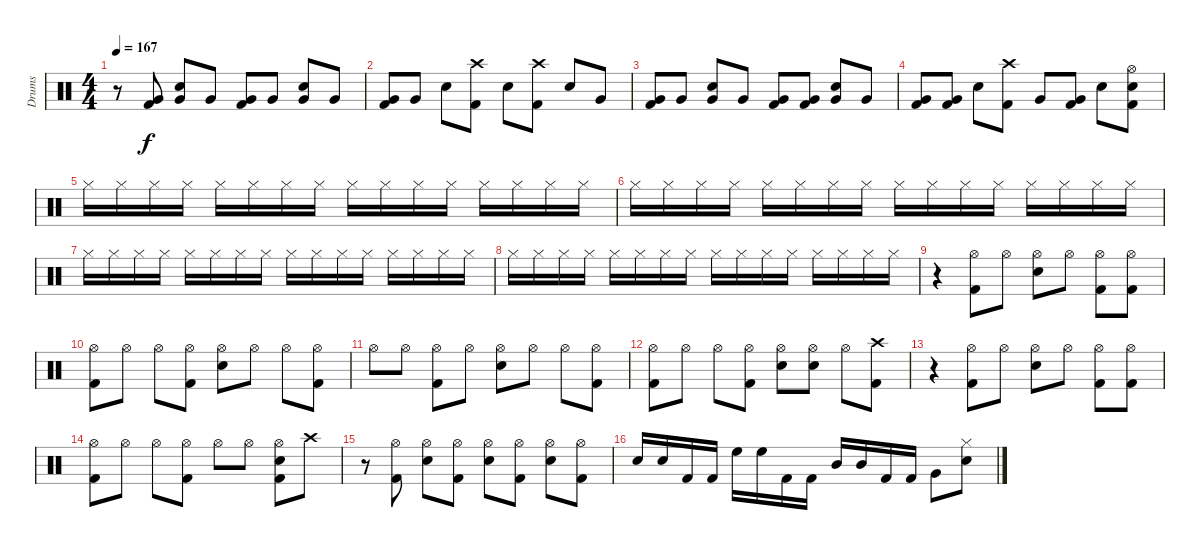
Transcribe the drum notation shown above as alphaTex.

\track ("Drums" "Drums") {instrument percussion}
\staff {score}
\articulation defaults
\ts (4 4)
\tempo 167
\clef neutral
\ks c
r.8{dy f} ("Very Low Tom (hit)" "Kick (hit) 2").8 ("Snare (hit) 2" "Very Low Tom (hit)").8 "Very Low Tom (hit)".8 ("Very Low Tom (hit)" "Kick (hit) 2").8 "Very Low Tom (hit)".8 ("Snare (hit) 2" "Very Low Tom (hit)").8 "Very Low Tom (hit)".8 |
("Very Low Tom (hit)" "Kick (hit) 2").8 "Very Low Tom (hit)".8 "Snare (hit) 2".8 ("Crash high (hit)" "Kick (hit) 2").8 "Snare (hit) 2".8 ("Crash high (hit)" "Kick (hit) 2").8 "Snare (hit) 2".8 "Very Low Tom (hit)".8 |
("Kick (hit) 2" "Very Low Tom (hit)").8 "Very Low Tom (hit)".8 ("Snare (hit) 2" "Very Low Tom (hit)").8 "Very Low Tom (hit)".8 ("Kick (hit) 2" "Very Low Tom (hit)").8 ("Kick (hit) 2" "Very Low Tom (hit)").8 ("Snare (hit) 2" "Very Low Tom (hit)").8 "Very Low Tom (hit)".8 |
("Kick (hit) 2" "Very Low Tom (hit)").8 ("Kick (hit) 2" "Very Low Tom (hit)").8 "Snare (hit) 2".8 ("Kick (hit) 2" "Crash high (hit)").8 "Very Low Tom (hit)".8 ("Kick (hit) 2" "Very Low Tom (hit)").8 "Snare (hit) 2".8 ("Kick (hit) 2" "Hi-Hat (open)" "Snare (hit) 2").8 |
"Hi-Hat (closed)".16 "Hi-Hat (closed)".16 "Hi-Hat (closed)".16 "Hi-Hat (closed)".16 "Hi-Hat (closed)".16 "Hi-Hat (closed)".16 "Hi-Hat (closed)".16 "Hi-Hat (closed)".16 "Hi-Hat (closed)".16 "Hi-Hat (closed)".16 "Hi-Hat (closed)".16 "Hi-Hat (closed)".16 "Hi-Hat (closed)".16 "Hi-Hat (closed)".16 "Hi-Hat (closed)".16 "Hi-Hat (closed)".16 |
"Hi-Hat (closed)".16 "Hi-Hat (closed)".16 "Hi-Hat (closed)".16 "Hi-Hat (closed)".16 "Hi-Hat (closed)".16 "Hi-Hat (closed)".16 "Hi-Hat (closed)".16 "Hi-Hat (closed)".16 "Hi-Hat (closed)".16 "Hi-Hat (closed)".16 "Hi-Hat (closed)".16 "Hi-Hat (closed)".16 "Hi-Hat (closed)".16 "Hi-Hat (closed)".16 "Hi-Hat (closed)".16 "Hi-Hat (closed)".16 |
"Hi-Hat (closed)".16 "Hi-Hat (closed)".16 "Hi-Hat (closed)".16 "Hi-Hat (closed)".16 "Hi-Hat (closed)".16 "Hi-Hat (closed)".16 "Hi-Hat (closed)".16 "Hi-Hat (closed)".16 "Hi-Hat (closed)".16 "Hi-Hat (closed)".16 "Hi-Hat (closed)".16 "Hi-Hat (closed)".16 "Hi-Hat (closed)".16 "Hi-Hat (closed)".16 "Hi-Hat (closed)".16 "Hi-Hat (closed)".16 |
"Hi-Hat (closed)".16 "Hi-Hat (closed)".16 "Hi-Hat (closed)".16 "Hi-Hat (closed)".16 "Hi-Hat (closed)".16 "Hi-Hat (closed)".16 "Hi-Hat (closed)".16 "Hi-Hat (closed)".16 "Hi-Hat (closed)".16 "Hi-Hat (closed)".16 "Hi-Hat (closed)".16 "Hi-Hat (closed)".16 "Hi-Hat (closed)".16 "Hi-Hat (closed)".16 "Hi-Hat (closed)".16 "Hi-Hat (closed)".16 |
r.4 ("Hi-Hat (open)" "Kick (hit) 2").8 "Hi-Hat (open)".8 ("Snare (hit) 2" "Hi-Hat (open)").8 "Hi-Hat (open)".8 ("Kick (hit) 2" "Hi-Hat (open)").8 ("Kick (hit) 2" "Hi-Hat (open)").8 |
("Kick (hit) 2" "Hi-Hat (open)").8 "Hi-Hat (open)".8 "Hi-Hat (open)".8 ("Kick (hit) 2" "Hi-Hat (open)").8 ("Snare (hit) 2" "Hi-Hat (open)").8 "Hi-Hat (open)".8 "Hi-Hat (open)".8 ("Kick (hit) 2" "Hi-Hat (open)").8 |
"Hi-Hat (open)".8 "Hi-Hat (open)".8 ("Kick (hit) 2" "Hi-Hat (open)").8 "Hi-Hat (open)".8 ("Snare (hit) 2" "Hi-Hat (open)").8 "Hi-Hat (open)".8 "Hi-Hat (open)".8 ("Kick (hit) 2" "Hi-Hat (open)").8 |
("Kick (hit) 2" "Hi-Hat (open)").8 "Hi-Hat (open)".8 "Hi-Hat (open)".8 ("Kick (hit) 2" "Hi-Hat (open)").8 ("Snare (hit) 2" "Hi-Hat (open)").8 ("Snare (hit) 2" "Hi-Hat (open)").8 "Hi-Hat (open)".8 ("Crash high (hit)" "Kick (hit) 2").8 |
r.4 ("Hi-Hat (open)" "Kick (hit) 2").8 "Hi-Hat (open)".8 ("Snare (hit) 2" "Hi-Hat (open)").8 "Hi-Hat (open)".8 ("Kick (hit) 2" "Hi-Hat (open)").8 ("Kick (hit) 2" "Hi-Hat (open)").8 |
("Kick (hit) 2" "Hi-Hat (open)").8 "Hi-Hat (open)".8 "Hi-Hat (open)".8 ("Kick (hit) 2" "Hi-Hat (open)").8 "Hi-Hat (open)".8 "Hi-Hat (open)".8 ("Hi-Hat (open)" "Kick (hit) 2" "Snare (hit) 2").8 "Crash high (hit)".8 |
r.8 ("Kick (hit) 2" "Hi-Hat (open)").8 ("Snare (hit) 2" "Hi-Hat (open)").8 ("Kick (hit) 2" "Hi-Hat (open)").8 ("Snare (hit) 2" "Hi-Hat (open)").8 ("Kick (hit) 2" "Hi-Hat (open)").8 ("Snare (hit) 2" "Hi-Hat (open)").8 ("Kick (hit) 2" "Hi-Hat (open)").8 |
"Snare (hit) 2".16 "Snare (hit) 2".16 "Kick (hit) 2".16 "Kick (hit) 2".16 "High Floor Tom (hit)".16 "High Floor Tom (hit)".16 "Kick (hit) 2".16 "Kick (hit) 2".16 "Mid Tom (hit)".16 "Mid Tom (hit)".16 "Kick (hit) 2".16 "Kick (hit) 2".16 "Very Low Tom (hit)".8 ("Hi-Hat (closed)" "Snare (hit) 2").8
